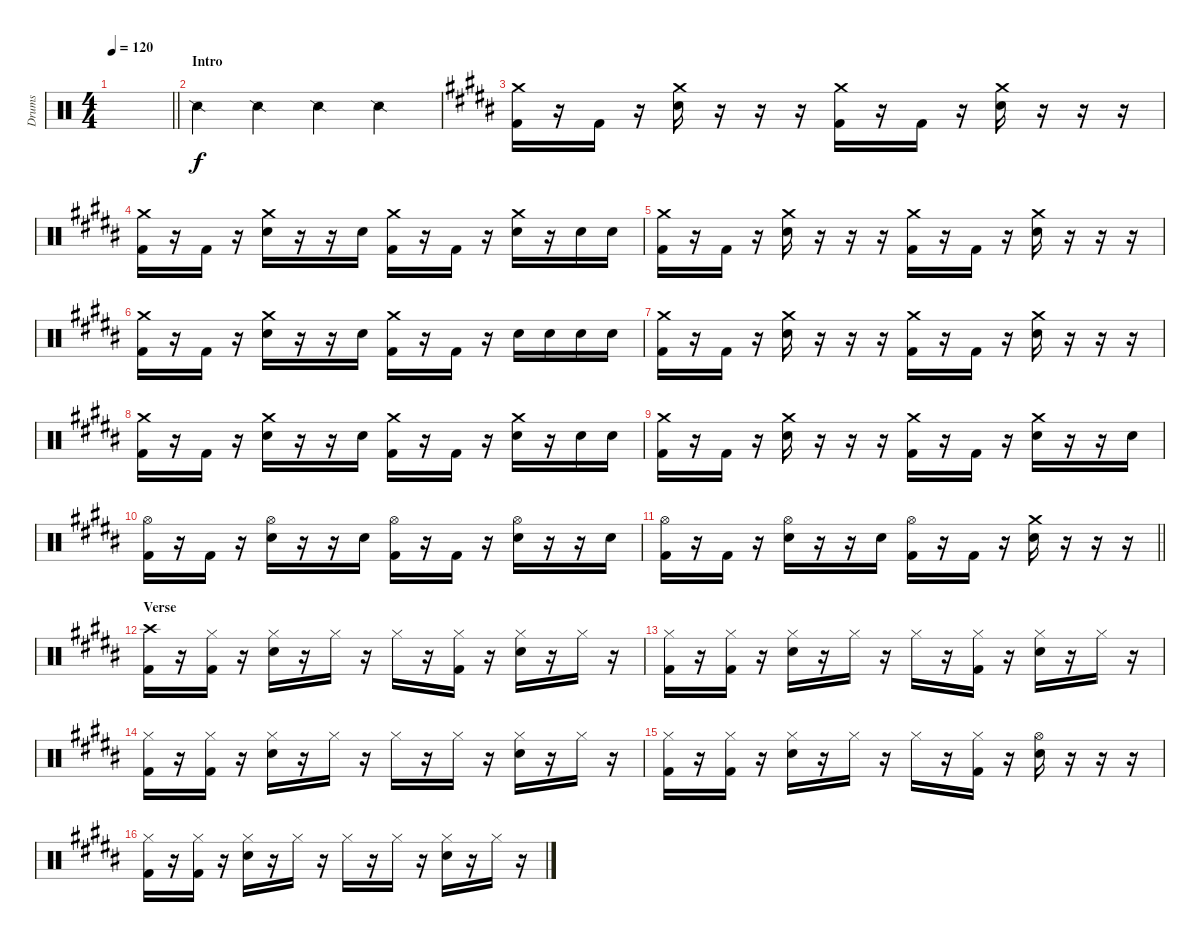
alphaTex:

\track ("Drums" "Drums") {instrument percussion}
\staff {score}
\articulation defaults
\ts (4 4)
\tempo 120
\clef neutral
\barLineRight lightlight
\ks c
|
\section ("" "Intro")
"Snare (side stick) 2".4 "Snare (side stick) 2".4 "Snare (side stick) 2".4 "Snare (side stick) 2".4 |
\ks b
("Crash medium (hit)" "Kick (hit) 2").16 r.16 "Kick (hit) 2".16 r.16 ("Crash medium (hit)" "Snare (hit) 2").16 r.16 r.16 r.16 ("Crash medium (hit)" "Kick (hit) 2").16 r.16 "Kick (hit) 2".16 r.16 ("Crash medium (hit)" "Snare (hit) 2").16 r.16 r.16 r.16 |
("Crash medium (hit)" "Kick (hit) 2").16 r.16 "Kick (hit) 2".16 r.16 ("Crash medium (hit)" "Snare (hit) 2").16 r.16 r.16 "Snare (hit) 2".16 ("Crash medium (hit)" "Kick (hit) 2").16 r.16 "Kick (hit) 2".16 r.16 ("Crash medium (hit)" "Snare (hit) 2").16 r.16 "Snare (hit) 2".16 "Snare (hit) 2".16 |
("Crash medium (hit)" "Kick (hit) 2").16 r.16 "Kick (hit) 2".16 r.16 ("Crash medium (hit)" "Snare (hit) 2").16 r.16 r.16 r.16 ("Crash medium (hit)" "Kick (hit) 2").16 r.16 "Kick (hit) 2".16 r.16 ("Crash medium (hit)" "Snare (hit) 2").16 r.16 r.16 r.16 |
("Crash medium (hit)" "Kick (hit) 2").16 r.16 "Kick (hit) 2".16 r.16 ("Crash medium (hit)" "Snare (hit) 2").16 r.16 r.16 "Snare (hit) 2".16 ("Crash medium (hit)" "Kick (hit) 2").16 r.16 "Kick (hit) 2".16 r.16 "Snare (hit) 2".16 "Snare (hit) 2".16 "Snare (hit) 2".16 "Snare (hit) 2".16 |
("Crash medium (hit)" "Kick (hit) 2").16 r.16 "Kick (hit) 2".16 r.16 ("Crash medium (hit)" "Snare (hit) 2").16 r.16 r.16 r.16 ("Crash medium (hit)" "Kick (hit) 2").16 r.16 "Kick (hit) 2".16 r.16 ("Crash medium (hit)" "Snare (hit) 2").16 r.16 r.16 r.16 |
("Crash medium (hit)" "Kick (hit) 2").16 r.16 "Kick (hit) 2".16 r.16 ("Crash medium (hit)" "Snare (hit) 2").16 r.16 r.16 "Snare (hit) 2".16 ("Crash medium (hit)" "Kick (hit) 2").16 r.16 "Kick (hit) 2".16 r.16 ("Crash medium (hit)" "Snare (hit) 2").16 r.16 "Snare (hit) 2".16 "Snare (hit) 2".16 |
("Crash medium (hit)" "Kick (hit) 2").16 r.16 "Kick (hit) 2".16 r.16 ("Crash medium (hit)" "Snare (hit) 2").16 r.16 r.16 r.16 ("Crash medium (hit)" "Kick (hit) 2").16 r.16 "Kick (hit) 2".16 r.16 ("Crash medium (hit)" "Snare (hit) 2").16 r.16 r.16 "Snare (hit) 2".16 |
("Hi-Hat (open)" "Kick (hit) 2").16 r.16 "Kick (hit) 2".16 r.16 ("Hi-Hat (open)" "Snare (hit) 2").16 r.16 r.16 "Snare (hit) 2".16 ("Hi-Hat (open)" "Kick (hit) 2").16 r.16 "Kick (hit) 2".16 r.16 ("Hi-Hat (open)" "Snare (hit) 2").16 r.16 r.16 "Snare (hit) 2".16 |
\barLineRight lightlight
("Hi-Hat (open)" "Kick (hit) 2").16 r.16 "Kick (hit) 2".16 r.16 ("Hi-Hat (open)" "Snare (hit) 2").16 r.16 r.16 "Snare (hit) 2".16 ("Hi-Hat (open)" "Kick (hit) 2").16 r.16 "Kick (hit) 2".16 r.16 ("Crash medium (hit)" "Snare (hit) 2").16 r.16 r.16 r.16 |
\section ("" "Verse")
("Crash high (hit)" "Kick (hit) 2").16 r.16 ("Hi-Hat (closed)" "Kick (hit) 2").16 r.16 ("Hi-Hat (closed)" "Snare (hit) 2").16 r.16 "Hi-Hat (closed)".16 r.16 "Hi-Hat (closed)".16 r.16 ("Hi-Hat (closed)" "Kick (hit) 2").16 r.16 ("Hi-Hat (closed)" "Snare (hit) 2").16 r.16 "Hi-Hat (closed)".16 r.16 |
("Hi-Hat (closed)" "Kick (hit) 2").16 r.16 ("Hi-Hat (closed)" "Kick (hit) 2").16 r.16 ("Hi-Hat (closed)" "Snare (hit) 2").16 r.16 "Hi-Hat (closed)".16 r.16 "Hi-Hat (closed)".16 r.16 ("Hi-Hat (closed)" "Kick (hit) 2").16 r.16 ("Hi-Hat (closed)" "Snare (hit) 2").16 r.16 "Hi-Hat (closed)".16 r.16 |
("Hi-Hat (closed)" "Kick (hit) 2").16 r.16 ("Hi-Hat (closed)" "Kick (hit) 2").16 r.16 ("Hi-Hat (closed)" "Snare (hit) 2").16 r.16 "Hi-Hat (closed)".16 r.16 "Hi-Hat (closed)".16 r.16 "Hi-Hat (closed)".16 r.16 ("Hi-Hat (closed)" "Snare (hit) 2").16 r.16 "Hi-Hat (closed)".16 r.16 |
("Hi-Hat (closed)" "Kick (hit) 2").16 r.16 ("Hi-Hat (closed)" "Kick (hit) 2").16 r.16 ("Hi-Hat (closed)" "Snare (hit) 2").16 r.16 "Hi-Hat (closed)".16 r.16 "Hi-Hat (closed)".16 r.16 ("Hi-Hat (closed)" "Kick (hit) 2").16 r.16 ("Hi-Hat (open)" "Snare (hit) 2").16 r.16 r.16 r.16 |
("Hi-Hat (closed)" "Kick (hit) 2").16 r.16 ("Hi-Hat (closed)" "Kick (hit) 2").16 r.16 ("Hi-Hat (closed)" "Snare (hit) 2").16 r.16 "Hi-Hat (closed)".16 r.16 "Hi-Hat (closed)".16 r.16 "Hi-Hat (closed)".16 r.16 ("Hi-Hat (closed)" "Snare (hit) 2").16 r.16 "Hi-Hat (closed)".16 r.16
